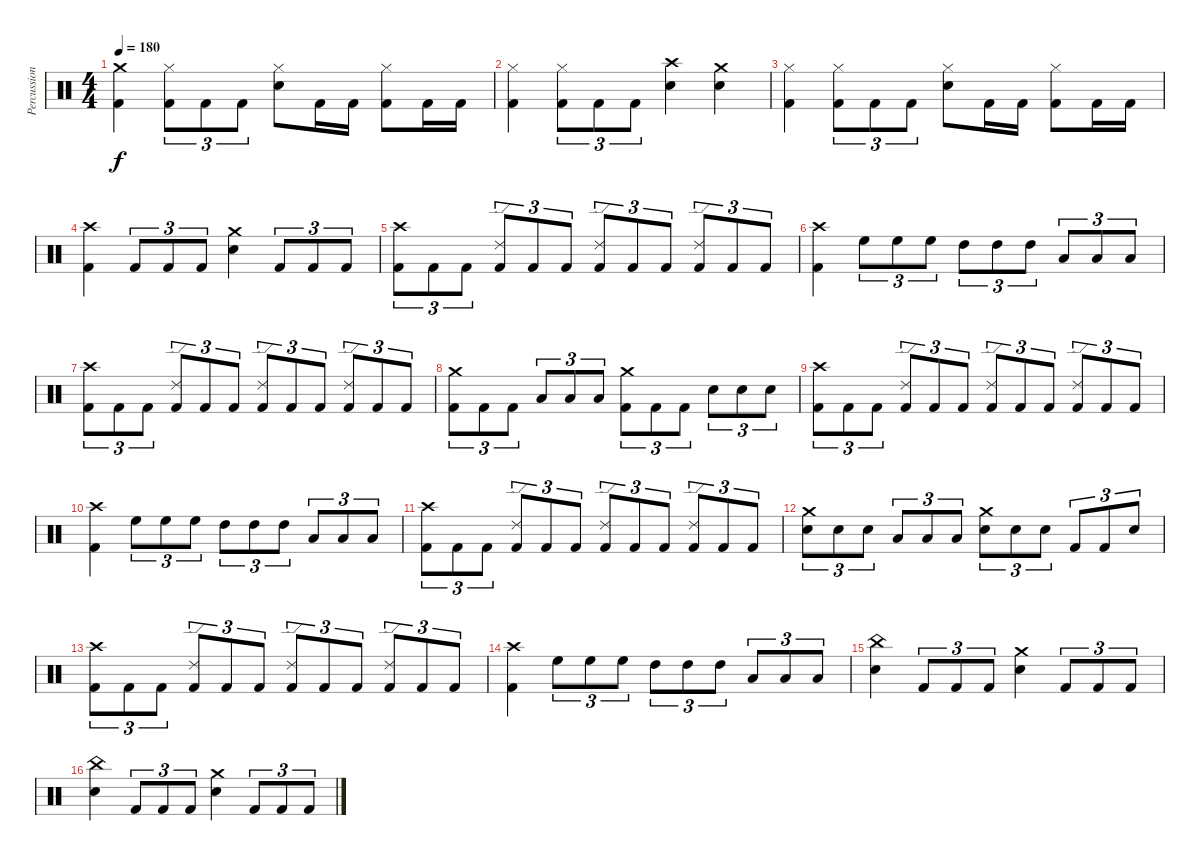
\track ("Percussion" "Percussion") {instrument percussion}
\staff {score}
\articulation defaults
\ts (4 4)
\tempo 180
\clef neutral
\ks c
("Crash medium (hit)" "Kick (hit) 2").4{dy f} ("Hi-Hat (closed)" "Kick (hit) 2").8{tu (3 2)} "Kick (hit) 2".8{tu (3 2)} "Kick (hit) 2".8{tu (3 2)} ("Hi-Hat (closed)" "Snare (hit) 2").8 "Kick (hit) 2".16 "Kick (hit) 2".16 ("Hi-Hat (closed)" "Kick (hit) 2").8 "Kick (hit) 2".16 "Kick (hit) 2".16 |
("Hi-Hat (closed)" "Kick (hit) 2").4 ("Hi-Hat (closed)" "Kick (hit) 2").8{tu (3 2)} "Kick (hit) 2".8{tu (3 2)} "Kick (hit) 2".8{tu (3 2)} ("Crash high (hit)" "Snare (hit) 2").4 ("Crash medium (hit)" "Snare (hit) 2").4 |
("Hi-Hat (closed)" "Kick (hit) 2").4 ("Hi-Hat (closed)" "Kick (hit) 2").8{tu (3 2)} "Kick (hit) 2".8{tu (3 2)} "Kick (hit) 2".8{tu (3 2)} ("Hi-Hat (closed)" "Snare (hit) 2").8 "Kick (hit) 2".16 "Kick (hit) 2".16 ("Hi-Hat (closed)" "Kick (hit) 2").8 "Kick (hit) 2".16 "Kick (hit) 2".16 |
("Crash high (hit)" "Kick (hit) 2").4 "Kick (hit) 2".8{tu (3 2)} "Kick (hit) 2".8{tu (3 2)} "Kick (hit) 2".8{tu (3 2)} ("Crash medium (hit)" "Snare (hit) 2").4 "Kick (hit) 2".8{tu (3 2)} "Kick (hit) 2".8{tu (3 2)} "Kick (hit) 2".8{tu (3 2)} |
("Crash high (hit)" "Kick (hit) 2").8{tu (3 2)} "Kick (hit) 2".8{tu (3 2)} "Kick (hit) 2".8{tu (3 2)} ("Ride (edge) 2" "Kick (hit) 2").8{tu (3 2)} "Kick (hit) 2".8{tu (3 2)} "Kick (hit) 2".8{tu (3 2)} ("Ride (edge) 2" "Kick (hit) 2").8{tu (3 2)} "Kick (hit) 2".8{tu (3 2)} "Kick (hit) 2".8{tu (3 2)} ("Ride (edge) 2" "Kick (hit) 2").8{tu (3 2)} "Kick (hit) 2".8{tu (3 2)} "Kick (hit) 2".8{tu (3 2)} |
("Crash high (hit)" "Kick (hit) 2").4 "High Floor Tom (hit)".8{tu (3 2)} "High Floor Tom (hit)".8{tu (3 2)} "High Floor Tom (hit)".8{tu (3 2)} "High Tom (hit)".8{tu (3 2)} "High Tom (hit)".8{tu (3 2)} "High Tom (hit)".8{tu (3 2)} "Low Tom (hit)".8{tu (3 2)} "Low Tom (hit)".8{tu (3 2)} "Low Tom (hit)".8{tu (3 2)} |
("Crash high (hit)" "Kick (hit) 2").8{tu (3 2)} "Kick (hit) 2".8{tu (3 2)} "Kick (hit) 2".8{tu (3 2)} ("Ride (edge) 2" "Kick (hit) 2").8{tu (3 2)} "Kick (hit) 2".8{tu (3 2)} "Kick (hit) 2".8{tu (3 2)} ("Ride (edge) 2" "Kick (hit) 2").8{tu (3 2)} "Kick (hit) 2".8{tu (3 2)} "Kick (hit) 2".8{tu (3 2)} ("Ride (edge) 2" "Kick (hit) 2").8{tu (3 2)} "Kick (hit) 2".8{tu (3 2)} "Kick (hit) 2".8{tu (3 2)} |
("Crash medium (hit)" "Kick (hit) 2").8{tu (3 2)} "Kick (hit) 2".8{tu (3 2)} "Kick (hit) 2".8{tu (3 2)} "Low Tom (hit)".8{tu (3 2)} "Low Tom (hit)".8{tu (3 2)} "Low Tom (hit)".8{tu (3 2)} ("Crash medium (hit)" "Kick (hit) 2").8{tu (3 2)} "Kick (hit) 2".8{tu (3 2)} "Kick (hit) 2".8{tu (3 2)} "Snare (hit) 2".8{tu (3 2)} "Snare (hit) 2".8{tu (3 2)} "Snare (hit) 2".8{tu (3 2)} |
("Crash high (hit)" "Kick (hit) 2").8{tu (3 2)} "Kick (hit) 2".8{tu (3 2)} "Kick (hit) 2".8{tu (3 2)} ("Ride (edge) 2" "Kick (hit) 2").8{tu (3 2)} "Kick (hit) 2".8{tu (3 2)} "Kick (hit) 2".8{tu (3 2)} ("Ride (edge) 2" "Kick (hit) 2").8{tu (3 2)} "Kick (hit) 2".8{tu (3 2)} "Kick (hit) 2".8{tu (3 2)} ("Ride (edge) 2" "Kick (hit) 2").8{tu (3 2)} "Kick (hit) 2".8{tu (3 2)} "Kick (hit) 2".8{tu (3 2)} |
("Crash high (hit)" "Kick (hit) 2").4 "High Floor Tom (hit)".8{tu (3 2)} "High Floor Tom (hit)".8{tu (3 2)} "High Floor Tom (hit)".8{tu (3 2)} "High Tom (hit)".8{tu (3 2)} "High Tom (hit)".8{tu (3 2)} "High Tom (hit)".8{tu (3 2)} "Low Tom (hit)".8{tu (3 2)} "Low Tom (hit)".8{tu (3 2)} "Low Tom (hit)".8{tu (3 2)} |
("Crash high (hit)" "Kick (hit) 2").8{tu (3 2)} "Kick (hit) 2".8{tu (3 2)} "Kick (hit) 2".8{tu (3 2)} ("Ride (edge) 2" "Kick (hit) 2").8{tu (3 2)} "Kick (hit) 2".8{tu (3 2)} "Kick (hit) 2".8{tu (3 2)} ("Ride (edge) 2" "Kick (hit) 2").8{tu (3 2)} "Kick (hit) 2".8{tu (3 2)} "Kick (hit) 2".8{tu (3 2)} ("Ride (edge) 2" "Kick (hit) 2").8{tu (3 2)} "Kick (hit) 2".8{tu (3 2)} "Kick (hit) 2".8{tu (3 2)} |
("Crash medium (hit)" "Snare (hit) 2").8{tu (3 2)} "Snare (hit) 2".8{tu (3 2)} "Snare (hit) 2".8{tu (3 2)} "Low Tom (hit)".8{tu (3 2)} "Low Tom (hit)".8{tu (3 2)} "Low Tom (hit)".8{tu (3 2)} ("Crash medium (hit)" "Snare (hit) 2").8{tu (3 2)} "Snare (hit) 2".8{tu (3 2)} "Snare (hit) 2".8{tu (3 2)} "Kick (hit) 2".8{tu (3 2)} "Kick (hit) 2".8{tu (3 2)} "Snare (hit) 2".8{tu (3 2)} |
("Crash high (hit)" "Kick (hit) 2").8{tu (3 2)} "Kick (hit) 2".8{tu (3 2)} "Kick (hit) 2".8{tu (3 2)} ("Ride (edge) 2" "Kick (hit) 2").8{tu (3 2)} "Kick (hit) 2".8{tu (3 2)} "Kick (hit) 2".8{tu (3 2)} ("Ride (edge) 2" "Kick (hit) 2").8{tu (3 2)} "Kick (hit) 2".8{tu (3 2)} "Kick (hit) 2".8{tu (3 2)} ("Ride (edge) 2" "Kick (hit) 2").8{tu (3 2)} "Kick (hit) 2".8{tu (3 2)} "Kick (hit) 2".8{tu (3 2)} |
("Crash high (hit)" "Kick (hit) 2").4 "High Floor Tom (hit)".8{tu (3 2)} "High Floor Tom (hit)".8{tu (3 2)} "High Floor Tom (hit)".8{tu (3 2)} "High Tom (hit)".8{tu (3 2)} "High Tom (hit)".8{tu (3 2)} "High Tom (hit)".8{tu (3 2)} "Low Tom (hit)".8{tu (3 2)} "Low Tom (hit)".8{tu (3 2)} "Low Tom (hit)".8{tu (3 2)} |
("China (hit)" "Snare (hit) 2").4 "Kick (hit) 2".8{tu (3 2)} "Kick (hit) 2".8{tu (3 2)} "Kick (hit) 2".8{tu (3 2)} ("Crash medium (hit)" "Snare (hit) 2").4 "Kick (hit) 2".8{tu (3 2)} "Kick (hit) 2".8{tu (3 2)} "Kick (hit) 2".8{tu (3 2)} |
("China (hit)" "Snare (hit) 2").4 "Kick (hit) 2".8{tu (3 2)} "Kick (hit) 2".8{tu (3 2)} "Kick (hit) 2".8{tu (3 2)} ("Crash medium (hit)" "Snare (hit) 2").4 "Kick (hit) 2".8{tu (3 2)} "Kick (hit) 2".8{tu (3 2)} "Kick (hit) 2".8{tu (3 2)}
